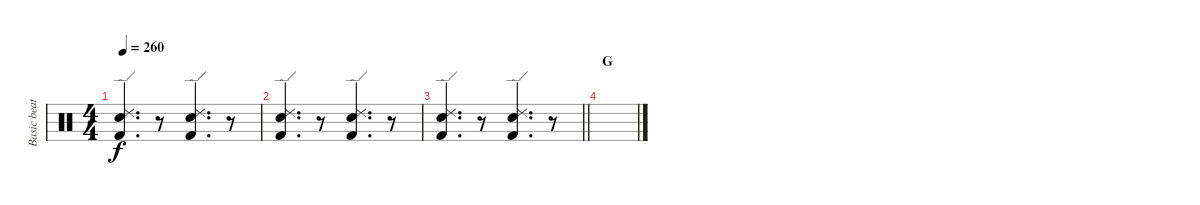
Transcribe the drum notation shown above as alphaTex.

\track ("Basic beat" "Basic beat") {instrument percussion}
\staff {score}
\articulation defaults
\ts (4 4)
\tempo 260
\clef neutral
\ks c
("Ride (edge) 2" "Electric Snare (hit)" "Kick (hit) 2").4{d dy f} r.8 ("Ride (edge) 2" "Electric Snare (hit)" "Kick (hit) 2").4{d} r.8 |
("Ride (edge) 2" "Electric Snare (hit)" "Kick (hit) 2").4{d} r.8 ("Ride (edge) 2" "Electric Snare (hit)" "Kick (hit) 2").4{d} r.8 |
\barLineRight lightlight
("Ride (edge) 2" "Electric Snare (hit)" "Kick (hit) 2").4{d} r.8 ("Ride (edge) 2" "Electric Snare (hit)" "Kick (hit) 2").4{d} r.8 |
\section ("" "G")
